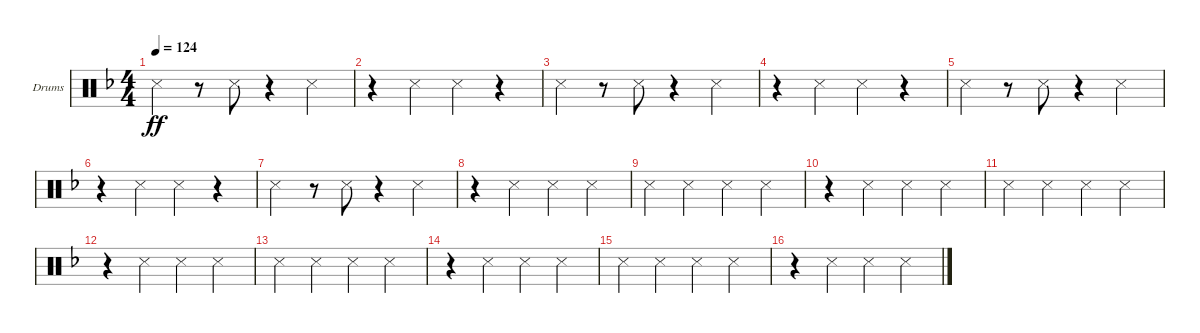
\bracketExtendMode groupsimilarinstruments
\firstSystemTrackNameOrientation horizontal
\otherSystemsTrackNameOrientation horizontal
\track ("Sidestick Clave Pattern" "Drums") {instrument percussion}
\staff {score}
\articulation defaults
\ts (4 4)
\tempo 124
\clef neutral
\scale
0.333333
\ks dminor "Snare (side stick) 3".4{dy ff}
r.8 "Snare (side stick) 3".8 r.4 "Snare (side stick) 3".4 |
\scale
0.333333 r.4 "Snare (side stick) 3".4 "Snare (side stick) 3".4 r.4 |
\scale
0.333333 "Snare (side stick) 3".4 r.8 "Snare (side stick) 3".8 r.4 "Snare (side stick) 3".4 |
\scale
0.333333 r.4 "Snare (side stick) 3".4 "Snare (side stick) 3".4 r.4 |
\scale
0.333333 "Snare (side stick) 3".4 r.8 "Snare (side stick) 3".8 r.4 "Snare (side stick) 3".4 |
\scale
0.333333 r.4 "Snare (side stick) 3".4 "Snare (side stick) 3".4 r.4 |
\scale
0.333333 "Snare (side stick) 3".4 r.8 "Snare (side stick) 3".8 r.4 "Snare (side stick) 3".4 |
\scale
0.301075 r.4 "Snare (side stick) 3".4 "Snare (side stick) 3".4 "Snare (side stick) 3".4 |
\scale
0.365591 "Snare (side stick) 3".4 "Snare (side stick) 3".4 "Snare (side stick) 3".4 "Snare (side stick) 3".4 |
r.4 "Snare (side stick) 3".4 "Snare (side stick) 3".4 "Snare (side stick) 3".4 |
"Snare (side stick) 3".4 "Snare (side stick) 3".4 "Snare (side stick) 3".4 "Snare (side stick) 3".4 |
\scale
0.333333 r.4 "Snare (side stick) 3".4 "Snare (side stick) 3".4 "Snare (side stick) 3".4 |
\scale
0.333333 "Snare (side stick) 3".4 "Snare (side stick) 3".4 "Snare (side stick) 3".4 "Snare (side stick) 3".4 |
\scale
0.333333 r.4 "Snare (side stick) 3".4 "Snare (side stick) 3".4 "Snare (side stick) 3".4 |
\scale
0.333333 "Snare (side stick) 3".4 "Snare (side stick) 3".4 "Snare (side stick) 3".4 "Snare (side stick) 3".4 |
\scale
0.333333 r.4 "Snare (side stick) 3".4 "Snare (side stick) 3".4 "Snare (side stick) 3".4
